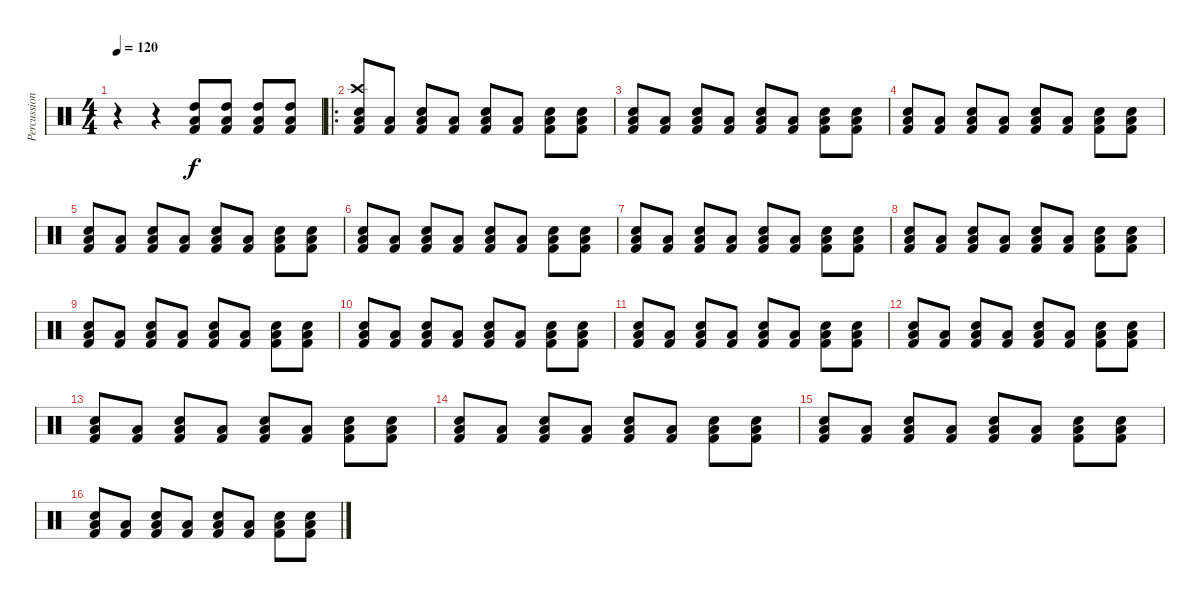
\track ("Percussions" "Percussion") {instrument percussion}
\staff {score}
\articulation defaults
\ts (4 4)
\tempo 120
\clef neutral
\ks c
r.4{dy f} r.4 ("High Tom (hit)" "Low Tom (hit)" "Kick (hit) 2").8 ("High Tom (hit)" "Low Tom (hit)" "Kick (hit) 2").8 ("High Tom (hit)" "Low Tom (hit)" "Kick (hit) 2").8 ("High Tom (hit)" "Low Tom (hit)" "Kick (hit) 2").8 |
\ro
("Crash high (hit)" "Low Tom (hit)" "Snare (hit) 2" "Kick (hit) 2").8 ("Low Tom (hit)" "Kick (hit) 2").8 ("Snare (hit) 2" "Low Tom (hit)" "Kick (hit) 2").8 ("Low Tom (hit)" "Kick (hit) 2").8 ("Snare (hit) 2" "Low Tom (hit)" "Kick (hit) 2").8 ("Low Tom (hit)" "Kick (hit) 2").8 ("Snare (hit) 2" "Low Tom (hit)" "Kick (hit) 2").8 ("Snare (hit) 2" "Low Tom (hit)" "Kick (hit) 2").8 |
("Low Tom (hit)" "Snare (hit) 2" "Kick (hit) 2").8 ("Low Tom (hit)" "Kick (hit) 2").8 ("Snare (hit) 2" "Low Tom (hit)" "Kick (hit) 2").8 ("Low Tom (hit)" "Kick (hit) 2").8 ("Snare (hit) 2" "Low Tom (hit)" "Kick (hit) 2").8 ("Low Tom (hit)" "Kick (hit) 2").8 ("Snare (hit) 2" "Low Tom (hit)" "Kick (hit) 2").8 ("Snare (hit) 2" "Low Tom (hit)" "Kick (hit) 2").8 |
("Low Tom (hit)" "Snare (hit) 2" "Kick (hit) 2").8 ("Low Tom (hit)" "Kick (hit) 2").8 ("Snare (hit) 2" "Low Tom (hit)" "Kick (hit) 2").8 ("Low Tom (hit)" "Kick (hit) 2").8 ("Snare (hit) 2" "Low Tom (hit)" "Kick (hit) 2").8 ("Low Tom (hit)" "Kick (hit) 2").8 ("Snare (hit) 2" "Low Tom (hit)" "Kick (hit) 2").8 ("Snare (hit) 2" "Low Tom (hit)" "Kick (hit) 2").8 |
("Low Tom (hit)" "Snare (hit) 2" "Kick (hit) 2").8 ("Low Tom (hit)" "Kick (hit) 2").8 ("Snare (hit) 2" "Low Tom (hit)" "Kick (hit) 2").8 ("Low Tom (hit)" "Kick (hit) 2").8 ("Snare (hit) 2" "Low Tom (hit)" "Kick (hit) 2").8 ("Low Tom (hit)" "Kick (hit) 2").8 ("Snare (hit) 2" "Low Tom (hit)" "Kick (hit) 2").8 ("Snare (hit) 2" "Low Tom (hit)" "Kick (hit) 2").8 |
("Low Tom (hit)" "Snare (hit) 2" "Kick (hit) 2").8 ("Low Tom (hit)" "Kick (hit) 2").8 ("Snare (hit) 2" "Low Tom (hit)" "Kick (hit) 2").8 ("Low Tom (hit)" "Kick (hit) 2").8 ("Snare (hit) 2" "Low Tom (hit)" "Kick (hit) 2").8 ("Low Tom (hit)" "Kick (hit) 2").8 ("Snare (hit) 2" "Low Tom (hit)" "Kick (hit) 2").8 ("Snare (hit) 2" "Low Tom (hit)" "Kick (hit) 2").8 |
("Low Tom (hit)" "Snare (hit) 2" "Kick (hit) 2").8 ("Low Tom (hit)" "Kick (hit) 2").8 ("Snare (hit) 2" "Low Tom (hit)" "Kick (hit) 2").8 ("Low Tom (hit)" "Kick (hit) 2").8 ("Snare (hit) 2" "Low Tom (hit)" "Kick (hit) 2").8 ("Low Tom (hit)" "Kick (hit) 2").8 ("Snare (hit) 2" "Low Tom (hit)" "Kick (hit) 2").8 ("Snare (hit) 2" "Low Tom (hit)" "Kick (hit) 2").8 |
("Low Tom (hit)" "Snare (hit) 2" "Kick (hit) 2").8 ("Low Tom (hit)" "Kick (hit) 2").8 ("Snare (hit) 2" "Low Tom (hit)" "Kick (hit) 2").8 ("Low Tom (hit)" "Kick (hit) 2").8 ("Snare (hit) 2" "Low Tom (hit)" "Kick (hit) 2").8 ("Low Tom (hit)" "Kick (hit) 2").8 ("Snare (hit) 2" "Low Tom (hit)" "Kick (hit) 2").8 ("Snare (hit) 2" "Low Tom (hit)" "Kick (hit) 2").8 |
("Low Tom (hit)" "Snare (hit) 2" "Kick (hit) 2").8 ("Low Tom (hit)" "Kick (hit) 2").8 ("Snare (hit) 2" "Low Tom (hit)" "Kick (hit) 2").8 ("Low Tom (hit)" "Kick (hit) 2").8 ("Snare (hit) 2" "Low Tom (hit)" "Kick (hit) 2").8 ("Low Tom (hit)" "Kick (hit) 2").8 ("Snare (hit) 2" "Low Tom (hit)" "Kick (hit) 2").8 ("Snare (hit) 2" "Low Tom (hit)" "Kick (hit) 2").8 |
("Low Tom (hit)" "Snare (hit) 2" "Kick (hit) 2").8 ("Low Tom (hit)" "Kick (hit) 2").8 ("Snare (hit) 2" "Low Tom (hit)" "Kick (hit) 2").8 ("Low Tom (hit)" "Kick (hit) 2").8 ("Snare (hit) 2" "Low Tom (hit)" "Kick (hit) 2").8 ("Low Tom (hit)" "Kick (hit) 2").8 ("Snare (hit) 2" "Low Tom (hit)" "Kick (hit) 2").8 ("Snare (hit) 2" "Low Tom (hit)" "Kick (hit) 2").8 |
("Low Tom (hit)" "Snare (hit) 2" "Kick (hit) 2").8 ("Low Tom (hit)" "Kick (hit) 2").8 ("Snare (hit) 2" "Low Tom (hit)" "Kick (hit) 2").8 ("Low Tom (hit)" "Kick (hit) 2").8 ("Snare (hit) 2" "Low Tom (hit)" "Kick (hit) 2").8 ("Low Tom (hit)" "Kick (hit) 2").8 ("Snare (hit) 2" "Low Tom (hit)" "Kick (hit) 2").8 ("Snare (hit) 2" "Low Tom (hit)" "Kick (hit) 2").8 |
("Low Tom (hit)" "Snare (hit) 2" "Kick (hit) 2").8 ("Low Tom (hit)" "Kick (hit) 2").8 ("Snare (hit) 2" "Low Tom (hit)" "Kick (hit) 2").8 ("Low Tom (hit)" "Kick (hit) 2").8 ("Snare (hit) 2" "Low Tom (hit)" "Kick (hit) 2").8 ("Low Tom (hit)" "Kick (hit) 2").8 ("Snare (hit) 2" "Low Tom (hit)" "Kick (hit) 2").8 ("Snare (hit) 2" "Low Tom (hit)" "Kick (hit) 2").8 |
("Low Tom (hit)" "Snare (hit) 2" "Kick (hit) 2").8 ("Low Tom (hit)" "Kick (hit) 2").8 ("Snare (hit) 2" "Low Tom (hit)" "Kick (hit) 2").8 ("Low Tom (hit)" "Kick (hit) 2").8 ("Snare (hit) 2" "Low Tom (hit)" "Kick (hit) 2").8 ("Low Tom (hit)" "Kick (hit) 2").8 ("Snare (hit) 2" "Low Tom (hit)" "Kick (hit) 2").8 ("Snare (hit) 2" "Low Tom (hit)" "Kick (hit) 2").8 |
("Low Tom (hit)" "Snare (hit) 2" "Kick (hit) 2").8 ("Low Tom (hit)" "Kick (hit) 2").8 ("Snare (hit) 2" "Low Tom (hit)" "Kick (hit) 2").8 ("Low Tom (hit)" "Kick (hit) 2").8 ("Snare (hit) 2" "Low Tom (hit)" "Kick (hit) 2").8 ("Low Tom (hit)" "Kick (hit) 2").8 ("Snare (hit) 2" "Low Tom (hit)" "Kick (hit) 2").8 ("Snare (hit) 2" "Low Tom (hit)" "Kick (hit) 2").8 |
("Low Tom (hit)" "Snare (hit) 2" "Kick (hit) 2").8 ("Low Tom (hit)" "Kick (hit) 2").8 ("Snare (hit) 2" "Low Tom (hit)" "Kick (hit) 2").8 ("Low Tom (hit)" "Kick (hit) 2").8 ("Snare (hit) 2" "Low Tom (hit)" "Kick (hit) 2").8 ("Low Tom (hit)" "Kick (hit) 2").8 ("Snare (hit) 2" "Low Tom (hit)" "Kick (hit) 2").8 ("Snare (hit) 2" "Low Tom (hit)" "Kick (hit) 2").8 |
("Low Tom (hit)" "Snare (hit) 2" "Kick (hit) 2").8 ("Low Tom (hit)" "Kick (hit) 2").8 ("Snare (hit) 2" "Low Tom (hit)" "Kick (hit) 2").8 ("Low Tom (hit)" "Kick (hit) 2").8 ("Snare (hit) 2" "Low Tom (hit)" "Kick (hit) 2").8 ("Low Tom (hit)" "Kick (hit) 2").8 ("Snare (hit) 2" "Low Tom (hit)" "Kick (hit) 2").8 ("Snare (hit) 2" "Low Tom (hit)" "Kick (hit) 2").8
